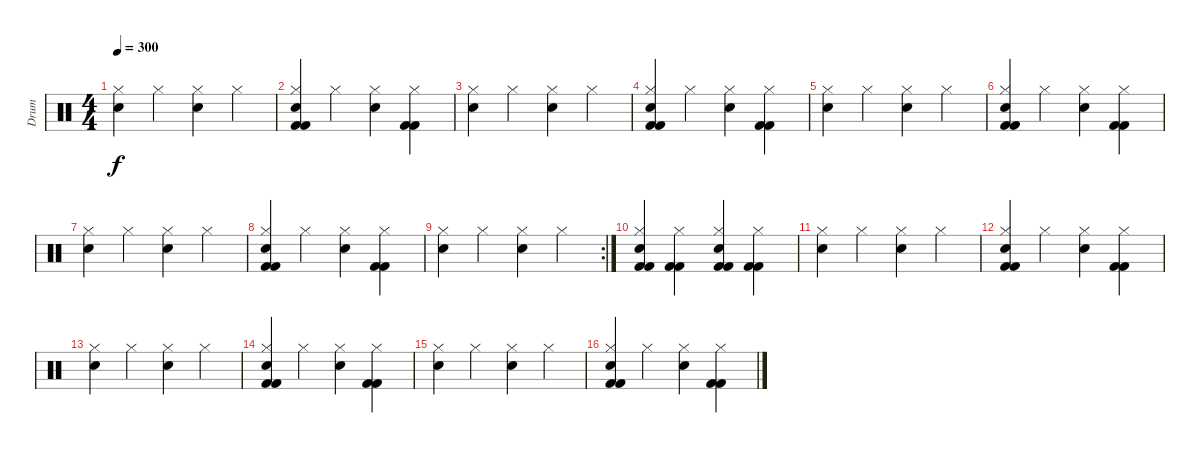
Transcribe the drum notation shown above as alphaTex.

\track ("Drum" "Drum") {instrument percussion}
\staff {score}
\articulation defaults
\ts (4 4)
\tempo 300
\clef neutral
\ks c
("Electric Snare (hit)" "Hi-Hat (closed)").4{dy f} "Hi-Hat (closed)".4 ("Electric Snare (hit)" "Hi-Hat (closed)").4 "Hi-Hat (closed)".4 |
("Electric Snare (hit)" "Hi-Hat (closed)" "Kick (hit) 2" "Kick (hit) 2").4 "Hi-Hat (closed)".4 ("Electric Snare (hit)" "Hi-Hat (closed)").4 ("Hi-Hat (closed)" "Kick (hit) 2" "Kick (hit) 2").4 |
("Electric Snare (hit)" "Hi-Hat (closed)").4 "Hi-Hat (closed)".4 ("Electric Snare (hit)" "Hi-Hat (closed)").4 "Hi-Hat (closed)".4 |
("Electric Snare (hit)" "Hi-Hat (closed)" "Kick (hit) 2" "Kick (hit) 2").4 "Hi-Hat (closed)".4 ("Electric Snare (hit)" "Hi-Hat (closed)").4 ("Hi-Hat (closed)" "Kick (hit) 2" "Kick (hit) 2").4 |
("Electric Snare (hit)" "Hi-Hat (closed)").4 "Hi-Hat (closed)".4 ("Electric Snare (hit)" "Hi-Hat (closed)").4 "Hi-Hat (closed)".4 |
("Electric Snare (hit)" "Hi-Hat (closed)" "Kick (hit) 2" "Kick (hit) 2").4 "Hi-Hat (closed)".4 ("Electric Snare (hit)" "Hi-Hat (closed)").4 ("Hi-Hat (closed)" "Kick (hit) 2" "Kick (hit) 2").4 |
("Electric Snare (hit)" "Hi-Hat (closed)").4 "Hi-Hat (closed)".4 ("Electric Snare (hit)" "Hi-Hat (closed)").4 "Hi-Hat (closed)".4 |
("Electric Snare (hit)" "Hi-Hat (closed)" "Kick (hit) 2" "Kick (hit) 2").4 "Hi-Hat (closed)".4 ("Electric Snare (hit)" "Hi-Hat (closed)").4 ("Hi-Hat (closed)" "Kick (hit) 2" "Kick (hit) 2").4 |
\rc 2
("Electric Snare (hit)" "Hi-Hat (closed)").4 "Hi-Hat (closed)".4 ("Electric Snare (hit)" "Hi-Hat (closed)").4 "Hi-Hat (closed)".4 |
("Electric Snare (hit)" "Hi-Hat (closed)" "Kick (hit) 2" "Kick (hit) 2").4 ("Hi-Hat (closed)" "Kick (hit) 2" "Kick (hit) 2").4 ("Electric Snare (hit)" "Hi-Hat (closed)" "Kick (hit) 2" "Kick (hit) 2").4 ("Hi-Hat (closed)" "Kick (hit) 2" "Kick (hit) 2").4 |
("Electric Snare (hit)" "Hi-Hat (closed)").4 "Hi-Hat (closed)".4 ("Electric Snare (hit)" "Hi-Hat (closed)").4 "Hi-Hat (closed)".4 |
("Electric Snare (hit)" "Hi-Hat (closed)" "Kick (hit) 2" "Kick (hit) 2").4 "Hi-Hat (closed)".4 ("Electric Snare (hit)" "Hi-Hat (closed)").4 ("Hi-Hat (closed)" "Kick (hit) 2" "Kick (hit) 2").4 |
("Electric Snare (hit)" "Hi-Hat (closed)").4 "Hi-Hat (closed)".4 ("Electric Snare (hit)" "Hi-Hat (closed)").4 "Hi-Hat (closed)".4 |
("Electric Snare (hit)" "Hi-Hat (closed)" "Kick (hit) 2" "Kick (hit) 2").4 "Hi-Hat (closed)".4 ("Electric Snare (hit)" "Hi-Hat (closed)").4 ("Hi-Hat (closed)" "Kick (hit) 2" "Kick (hit) 2").4 |
("Electric Snare (hit)" "Hi-Hat (closed)").4 "Hi-Hat (closed)".4 ("Electric Snare (hit)" "Hi-Hat (closed)").4 "Hi-Hat (closed)".4 |
("Electric Snare (hit)" "Hi-Hat (closed)" "Kick (hit) 2" "Kick (hit) 2").4 "Hi-Hat (closed)".4 ("Electric Snare (hit)" "Hi-Hat (closed)").4 ("Hi-Hat (closed)" "Kick (hit) 2" "Kick (hit) 2").4
